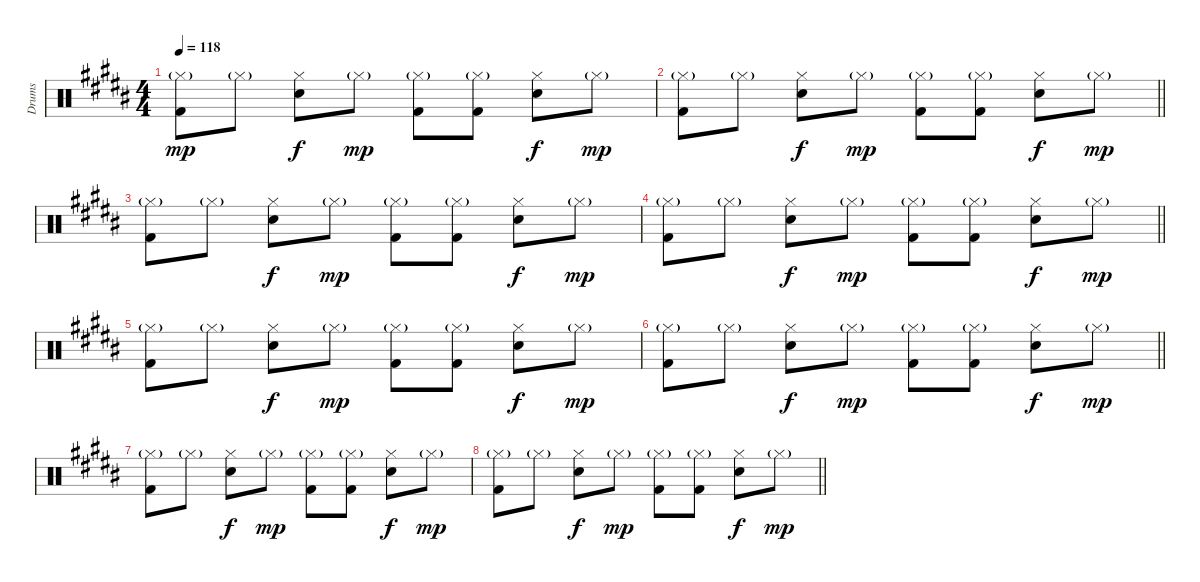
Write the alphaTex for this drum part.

\track ("Drums" "Drums") {instrument percussion}
\staff {score}
\articulation defaults
\ts (4 4)
\tempo 118
\clef neutral
\ks b
("Hi-Hat (closed)"{g} "Kick (hit) 2").8{dy mp} "Hi-Hat (closed)"{g}.8 ("Hi-Hat (closed)" "Snare (hit) 2").8{dy f} "Hi-Hat (closed)"{g}.8{dy mp} ("Hi-Hat (closed)"{g} "Kick (hit) 2").8 ("Hi-Hat (closed)"{g} "Kick (hit) 2").8 ("Hi-Hat (closed)" "Snare (hit) 2").8{dy f} "Hi-Hat (closed)"{g}.8{dy mp} |
\barLineRight lightlight
("Hi-Hat (closed)"{g} "Kick (hit) 2").8 "Hi-Hat (closed)"{g}.8 ("Hi-Hat (closed)" "Snare (hit) 2").8{dy f} "Hi-Hat (closed)"{g}.8{dy mp} ("Hi-Hat (closed)"{g} "Kick (hit) 2").8 ("Hi-Hat (closed)"{g} "Kick (hit) 2").8 ("Hi-Hat (closed)" "Snare (hit) 2").8{dy f} "Hi-Hat (closed)"{g}.8{dy mp} |
("Hi-Hat (closed)"{g} "Kick (hit) 2").8 "Hi-Hat (closed)"{g}.8 ("Hi-Hat (closed)" "Snare (hit) 2").8{dy f} "Hi-Hat (closed)"{g}.8{dy mp} ("Hi-Hat (closed)"{g} "Kick (hit) 2").8 ("Hi-Hat (closed)"{g} "Kick (hit) 2").8 ("Hi-Hat (closed)" "Snare (hit) 2").8{dy f} "Hi-Hat (closed)"{g}.8{dy mp} |
\barLineRight lightlight
("Hi-Hat (closed)"{g} "Kick (hit) 2").8 "Hi-Hat (closed)"{g}.8 ("Hi-Hat (closed)" "Snare (hit) 2").8{dy f} "Hi-Hat (closed)"{g}.8{dy mp} ("Hi-Hat (closed)"{g} "Kick (hit) 2").8 ("Hi-Hat (closed)"{g} "Kick (hit) 2").8 ("Hi-Hat (closed)" "Snare (hit) 2").8{dy f} "Hi-Hat (closed)"{g}.8{dy mp} |
("Hi-Hat (closed)"{g} "Kick (hit) 2").8 "Hi-Hat (closed)"{g}.8 ("Hi-Hat (closed)" "Snare (hit) 2").8{dy f} "Hi-Hat (closed)"{g}.8{dy mp} ("Hi-Hat (closed)"{g} "Kick (hit) 2").8 ("Hi-Hat (closed)"{g} "Kick (hit) 2").8 ("Hi-Hat (closed)" "Snare (hit) 2").8{dy f} "Hi-Hat (closed)"{g}.8{dy mp} |
\barLineRight lightlight
("Hi-Hat (closed)"{g} "Kick (hit) 2").8 "Hi-Hat (closed)"{g}.8 ("Hi-Hat (closed)" "Snare (hit) 2").8{dy f} "Hi-Hat (closed)"{g}.8{dy mp} ("Hi-Hat (closed)"{g} "Kick (hit) 2").8 ("Hi-Hat (closed)"{g} "Kick (hit) 2").8 ("Hi-Hat (closed)" "Snare (hit) 2").8{dy f} "Hi-Hat (closed)"{g}.8{dy mp} |
("Hi-Hat (closed)"{g} "Kick (hit) 2").8 "Hi-Hat (closed)"{g}.8 ("Hi-Hat (closed)" "Snare (hit) 2").8{dy f} "Hi-Hat (closed)"{g}.8{dy mp} ("Hi-Hat (closed)"{g} "Kick (hit) 2").8 ("Hi-Hat (closed)"{g} "Kick (hit) 2").8 ("Hi-Hat (closed)" "Snare (hit) 2").8{dy f} "Hi-Hat (closed)"{g}.8{dy mp} |
\barLineRight lightlight
("Hi-Hat (closed)"{g} "Kick (hit) 2").8 "Hi-Hat (closed)"{g}.8 ("Hi-Hat (closed)" "Snare (hit) 2").8{dy f} "Hi-Hat (closed)"{g}.8{dy mp} ("Hi-Hat (closed)"{g} "Kick (hit) 2").8 ("Hi-Hat (closed)"{g} "Kick (hit) 2").8 ("Hi-Hat (closed)" "Snare (hit) 2").8{dy f} "Hi-Hat (closed)"{g}.8{dy mp}
